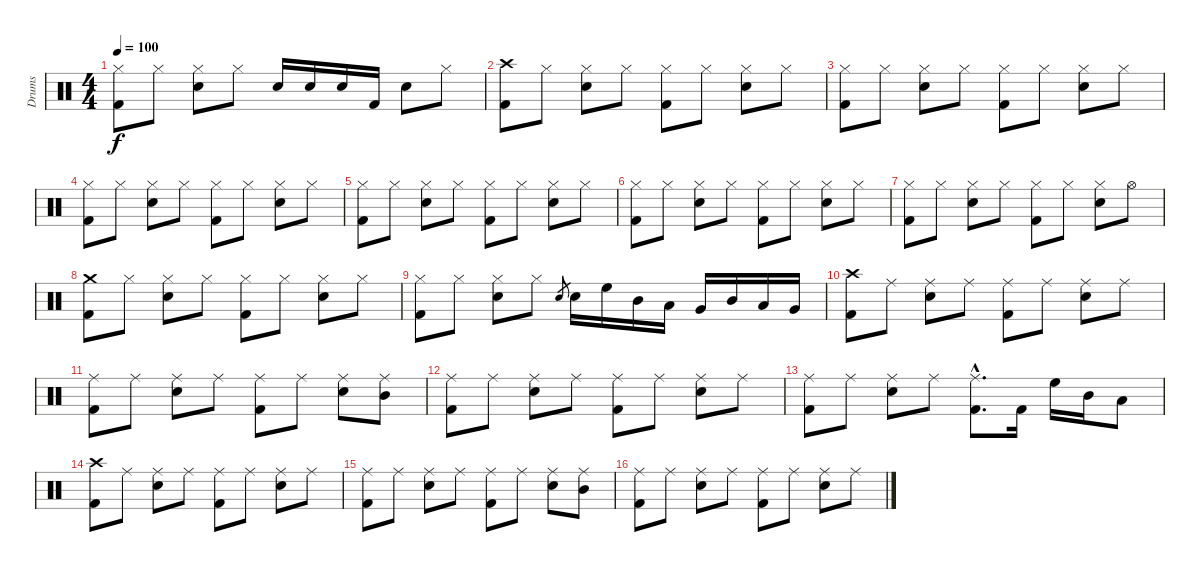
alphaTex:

\track ("Drums" "Drums") {instrument percussion}
\staff {score}
\articulation defaults
\ts (4 4)
\tempo 100
\clef neutral
\ks c
("Hi-Hat (closed)" "Kick (hit) 2").8{dy f} "Hi-Hat (closed)".8 ("Hi-Hat (closed)" "Snare (hit) 2").8 "Hi-Hat (closed)".8 "Snare (hit) 2".16 "Snare (hit) 2".16 "Snare (hit) 2".16 "Kick (hit) 2".16 "Snare (hit) 2".8 "Hi-Hat (closed)".8 |
("Crash high (hit)" "Kick (hit) 2").8 "Hi-Hat (closed)".8 ("Hi-Hat (closed)" "Snare (hit) 2").8 "Hi-Hat (closed)".8 ("Hi-Hat (closed)" "Kick (hit) 2").8 "Hi-Hat (closed)".8 ("Hi-Hat (closed)" "Snare (hit) 2").8 "Hi-Hat (closed)".8 |
("Hi-Hat (closed)" "Kick (hit) 2").8 "Hi-Hat (closed)".8 ("Hi-Hat (closed)" "Snare (hit) 2").8 "Hi-Hat (closed)".8 ("Hi-Hat (closed)" "Kick (hit) 2").8 "Hi-Hat (closed)".8 ("Hi-Hat (closed)" "Snare (hit) 2").8 "Hi-Hat (closed)".8 |
("Hi-Hat (closed)" "Kick (hit) 2").8 "Hi-Hat (closed)".8 ("Hi-Hat (closed)" "Snare (hit) 2").8 "Hi-Hat (closed)".8 ("Hi-Hat (closed)" "Kick (hit) 2").8 "Hi-Hat (closed)".8 ("Hi-Hat (closed)" "Snare (hit) 2").8 "Hi-Hat (closed)".8 |
("Hi-Hat (closed)" "Kick (hit) 2").8 "Hi-Hat (closed)".8 ("Hi-Hat (closed)" "Snare (hit) 2").8 "Hi-Hat (closed)".8 ("Hi-Hat (closed)" "Kick (hit) 2").8 "Hi-Hat (closed)".8 ("Hi-Hat (closed)" "Snare (hit) 2").8 "Hi-Hat (closed)".8 |
("Hi-Hat (closed)" "Kick (hit) 2").8 "Hi-Hat (closed)".8 ("Hi-Hat (closed)" "Snare (hit) 2").8 "Hi-Hat (closed)".8 ("Hi-Hat (closed)" "Kick (hit) 2").8 "Hi-Hat (closed)".8 ("Hi-Hat (closed)" "Snare (hit) 2").8 "Hi-Hat (closed)".8 |
("Hi-Hat (closed)" "Kick (hit) 2").8 "Hi-Hat (closed)".8 ("Hi-Hat (closed)" "Snare (hit) 2").8 "Hi-Hat (closed)".8 ("Hi-Hat (closed)" "Kick (hit) 2").8 "Hi-Hat (closed)".8 ("Hi-Hat (closed)" "Snare (hit) 2").8 "Hi-Hat (open)".8 |
("Crash medium (hit)" "Kick (hit) 2").8 "Hi-Hat (closed)".8 ("Hi-Hat (closed)" "Snare (hit) 2").8 "Hi-Hat (closed)".8 ("Hi-Hat (closed)" "Kick (hit) 2").8 "Hi-Hat (closed)".8 ("Hi-Hat (closed)" "Snare (hit) 2").8 "Hi-Hat (closed)".8 |
("Hi-Hat (closed)" "Kick (hit) 2").8 "Hi-Hat (closed)".8 ("Hi-Hat (closed)" "Snare (hit) 2").8 "Hi-Hat (closed)".8 "Snare (hit) 2".8{gr} "Snare (hit) 2".16 "High Floor Tom (hit)".16 "Mid Tom (hit)".16 "Low Tom (hit)".16 "Very Low Tom (hit)".16 "Mid Tom (hit)".16 "Low Tom (hit)".16 "Very Low Tom (hit)".16 |
("Crash high (hit)" "Kick (hit) 2").8 "Ride (middle)".8 ("Ride (middle)" "Snare (hit) 2").8 "Ride (middle)".8 ("Ride (middle)" "Kick (hit) 2").8 "Ride (middle)".8 ("Ride (middle)" "Snare (hit) 2").8 "Ride (middle)".8 |
("Ride (middle)" "Kick (hit) 2").8 "Ride (middle)".8 ("Ride (middle)" "Snare (hit) 2").8 "Ride (middle)".8 ("Ride (middle)" "Kick (hit) 2").8 "Ride (middle)".8 ("Ride (middle)" "Snare (hit) 2").8 ("Ride (middle)" "Mid Tom (hit)").8 |
("Ride (middle)" "Kick (hit) 2").8 "Ride (middle)".8 ("Ride (middle)" "Snare (hit) 2").8 "Ride (middle)".8 ("Ride (middle)" "Kick (hit) 2").8 "Ride (middle)".8 ("Ride (middle)" "Snare (hit) 2").8 "Ride (middle)".8 |
("Ride (middle)" "Kick (hit) 2").8 "Ride (middle)".8 ("Ride (middle)" "Snare (hit) 2").8 "Ride (middle)".8 ("Ride (middle)"{hac} "Kick (hit) 2"{hac}).8{d} "Kick (hit) 2".16 "High Floor Tom (hit)".16 "Mid Tom (hit)".16 "Low Tom (hit)".8 |
("Crash high (hit)" "Kick (hit) 2").8 "Ride (middle)".8 ("Ride (middle)" "Snare (hit) 2").8 "Ride (middle)".8 ("Ride (middle)" "Kick (hit) 2").8 "Ride (middle)".8 ("Ride (middle)" "Snare (hit) 2").8 "Ride (middle)".8 |
("Ride (middle)" "Kick (hit) 2").8 "Ride (middle)".8 ("Ride (middle)" "Snare (hit) 2").8 "Ride (middle)".8 ("Ride (middle)" "Kick (hit) 2").8 "Ride (middle)".8 ("Ride (middle)" "Snare (hit) 2").8 ("Ride (middle)" "Mid Tom (hit)").8 |
("Ride (middle)" "Kick (hit) 2").8 "Ride (middle)".8 ("Ride (middle)" "Snare (hit) 2").8 "Ride (middle)".8 ("Ride (middle)" "Kick (hit) 2").8 "Ride (middle)".8 ("Ride (middle)" "Snare (hit) 2").8 "Ride (middle)".8
